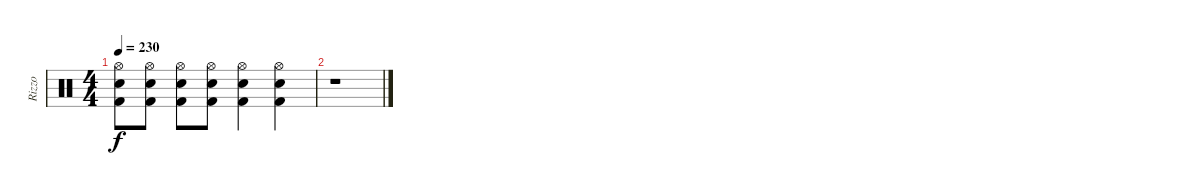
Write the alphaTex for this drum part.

\track ("Rizzo" "Rizzo") {instrument percussion}
\staff {score}
\articulation defaults
\ts (4 4)
\tempo 230
\clef neutral
\ks c
("Hi-Hat (open)" "Snare (hit) 2" "Kick (hit) 2").8{dy f} ("Hi-Hat (open)" "Snare (hit) 2" "Kick (hit) 2").8 ("Hi-Hat (open)" "Snare (hit) 2" "Kick (hit) 2").8 ("Hi-Hat (open)" "Snare (hit) 2" "Kick (hit) 2").8 ("Hi-Hat (open)" "Snare (hit) 2" "Kick (hit) 2").4 ("Hi-Hat (open)" "Snare (hit) 2" "Kick (hit) 2").4 |
r.1
